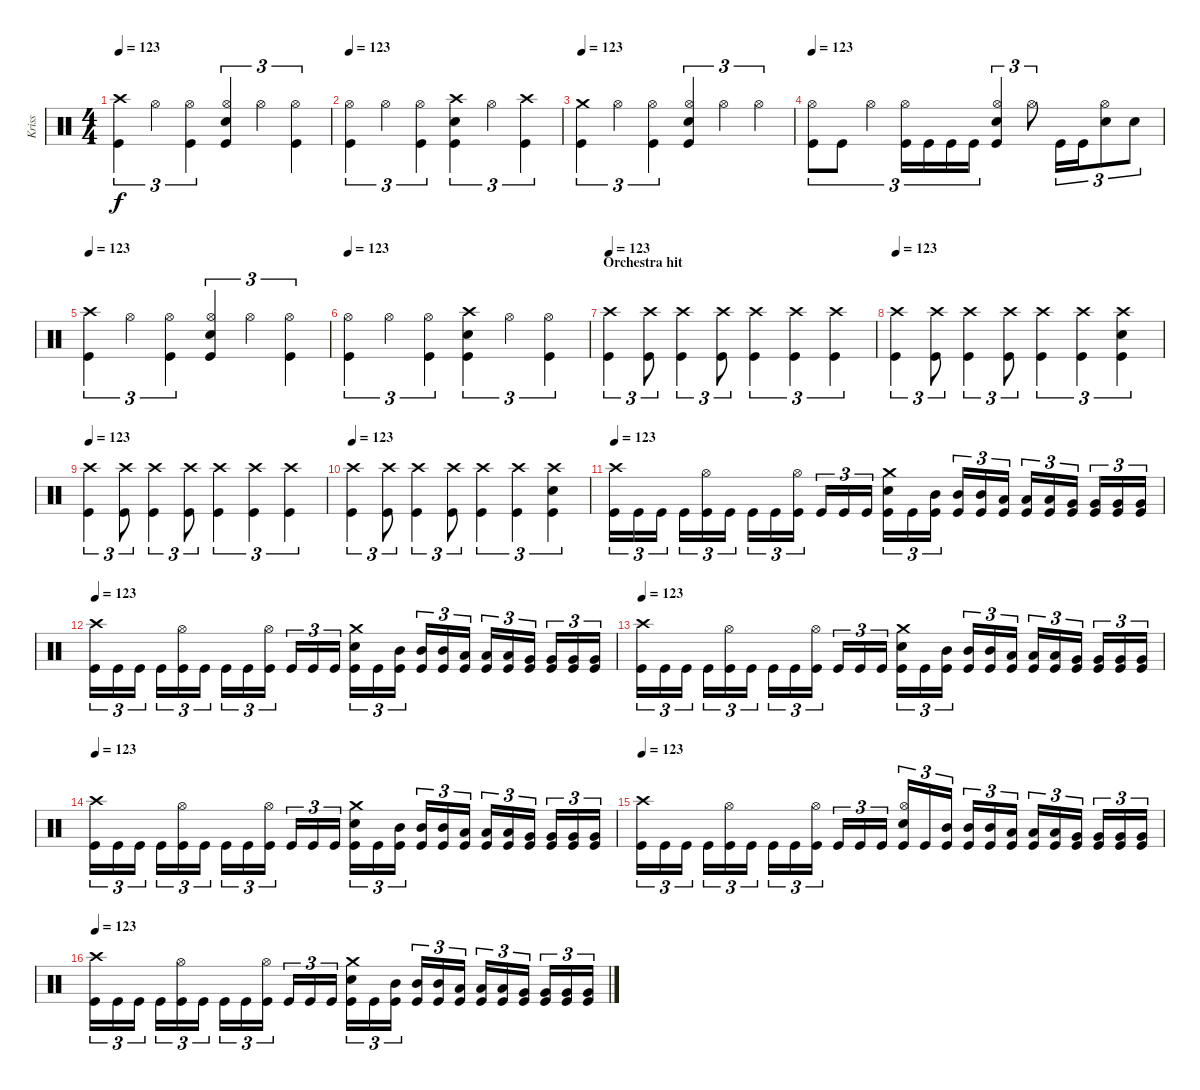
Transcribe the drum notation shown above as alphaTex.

\track ("Kriss" "Kriss") {instrument percussion}
\staff {score}
\articulation defaults
\ts (4 4)
\tempo 123
\clef neutral
\ks c
("Crash high (hit)" "Kick (hit)").4{tu (3 2) dy f} "Hi-Hat (open)".4{tu (3 2)} ("Hi-Hat (open)" "Kick (hit)").4{tu (3 2)} ("Hi-Hat (open)" "Snare (hit) 2" "Kick (hit)").4{tu (3 2)} "Hi-Hat (open)".4{tu (3 2)} ("Hi-Hat (open)" "Kick (hit)").4{tu (3 2)} |
\tempo 123
("Hi-Hat (open)" "Kick (hit)").4{tu (3 2)} "Hi-Hat (open)".4{tu (3 2)} ("Hi-Hat (open)" "Kick (hit)").4{tu (3 2)} ("Crash high (hit)" "Snare (hit) 2" "Kick (hit)").4{tu (3 2)} "Hi-Hat (open)".4{tu (3 2)} ("Crash high (hit)" "Kick (hit)").4{tu (3 2)} |
\tempo 123
("Crash medium (hit)" "Kick (hit)").4{tu (3 2)} "Hi-Hat (open)".4{tu (3 2)} ("Hi-Hat (open)" "Kick (hit)").4{tu (3 2)} ("Hi-Hat (open)" "Snare (hit) 2" "Kick (hit)").4{tu (3 2)} "Hi-Hat (open)".4{tu (3 2)} "Hi-Hat (open)".4{tu (3 2)} |
\tempo 123
("Hi-Hat (open)" "Kick (hit)").8{tu (3 2)} "Kick (hit)".8{tu (3 2)} "Hi-Hat (open)".4{tu (3 2)} ("Hi-Hat (open)" "Kick (hit)").16{tu (3 2)} "Kick (hit)".16{tu (3 2)} "Kick (hit)".16{tu (3 2)} "Kick (hit)".16{tu (3 2)} ("Hi-Hat (open)" "Snare (hit) 2" "Kick (hit)").4{tu (3 2)} "Hi-Hat (open)".8{tu (3 2)} "Kick (hit)".16{tu (3 2)} "Kick (hit)".16{tu (3 2)} ("Hi-Hat (open)" "Snare (hit) 2").8{tu (3 2)} "Snare (hit) 2".8{tu (3 2)} |
\tempo 123
("Crash high (hit)" "Kick (hit)").4{tu (3 2)} "Hi-Hat (open)".4{tu (3 2)} ("Hi-Hat (open)" "Kick (hit)").4{tu (3 2)} ("Hi-Hat (open)" "Snare (hit) 2" "Kick (hit)").4{tu (3 2)} "Hi-Hat (open)".4{tu (3 2)} ("Hi-Hat (open)" "Kick (hit)").4{tu (3 2)} |
\tempo 123
("Hi-Hat (open)" "Kick (hit)").4{tu (3 2)} "Hi-Hat (open)".4{tu (3 2)} ("Hi-Hat (open)" "Kick (hit)").4{tu (3 2)} ("Crash high (hit)" "Snare (hit) 2" "Kick (hit)").4{tu (3 2)} "Hi-Hat (open)".4{tu (3 2)} ("Hi-Hat (open)" "Kick (hit)").4{tu (3 2)} |
\section ("" "Orchestra hit")
\tempo 123
("Crash high (hit)" "Kick (hit)").4{tu (3 2)} ("Crash high (hit)" "Kick (hit)").8{tu (3 2)} ("Crash high (hit)" "Kick (hit)").4{tu (3 2)} ("Crash high (hit)" "Kick (hit)").8{tu (3 2)} ("Crash high (hit)" "Kick (hit)").4{tu (3 2)} ("Crash high (hit)" "Kick (hit)").4{tu (3 2)} ("Crash high (hit)" "Kick (hit)").4{tu (3 2)} |
\tempo 123
("Crash high (hit)" "Kick (hit)").4{tu (3 2)} ("Crash high (hit)" "Kick (hit)").8{tu (3 2)} ("Crash high (hit)" "Kick (hit)").4{tu (3 2)} ("Crash high (hit)" "Kick (hit)").8{tu (3 2)} ("Crash high (hit)" "Kick (hit)").4{tu (3 2)} ("Crash high (hit)" "Kick (hit)").4{tu (3 2)} ("Crash high (hit)" "Snare (hit) 2" "Kick (hit)").4{tu (3 2)} |
\tempo 123
("Crash high (hit)" "Kick (hit)").4{tu (3 2)} ("Crash high (hit)" "Kick (hit)").8{tu (3 2)} ("Crash high (hit)" "Kick (hit)").4{tu (3 2)} ("Crash high (hit)" "Kick (hit)").8{tu (3 2)} ("Crash high (hit)" "Kick (hit)").4{tu (3 2)} ("Crash high (hit)" "Kick (hit)").4{tu (3 2)} ("Crash high (hit)" "Kick (hit)").4{tu (3 2)} |
\tempo 123
("Crash high (hit)" "Kick (hit)").4{tu (3 2)} ("Crash high (hit)" "Kick (hit)").8{tu (3 2)} ("Crash high (hit)" "Kick (hit)").4{tu (3 2)} ("Crash high (hit)" "Kick (hit)").8{tu (3 2)} ("Crash high (hit)" "Kick (hit)").4{tu (3 2)} ("Crash high (hit)" "Kick (hit)").4{tu (3 2)} ("Crash high (hit)" "Snare (hit) 2" "Kick (hit)").4{tu (3 2)} |
\tempo 123
("Crash high (hit)" "Kick (hit)").16{tu (3 2)} "Kick (hit)".16{tu (3 2)} "Kick (hit)".16{tu (3 2)} "Kick (hit)".16{tu (3 2)} ("Hi-Hat (open)" "Kick (hit)").16{tu (3 2)} "Kick (hit)".16{tu (3 2)} "Kick (hit)".16{tu (3 2)} "Kick (hit)".16{tu (3 2)} ("Hi-Hat (open)" "Kick (hit)").16{tu (3 2)} "Kick (hit)".16{tu (3 2)} "Kick (hit)".16{tu (3 2)} "Kick (hit)".16{tu (3 2)} ("Crash medium (hit)" "Snare (hit) 2" "Kick (hit)").16{tu (3 2)} "Kick (hit)".16{tu (3 2)} ("Mid Tom (hit)" "Kick (hit)").16{tu (3 2)} ("Mid Tom (hit)" "Kick (hit)").16{tu (3 2)} ("Mid Tom (hit)" "Kick (hit)").16{tu (3 2)} ("Low Tom (hit)" "Kick (hit)").16{tu (3 2)} ("Low Tom (hit)" "Kick (hit)").16{tu (3 2)} ("Low Tom (hit)" "Kick (hit)").16{tu (3 2)} ("Very Low Tom (hit)" "Kick (hit)").16{tu (3 2)} ("Very Low Tom (hit)" "Kick (hit)").16{tu (3 2)} ("Very Low Tom (hit)" "Kick (hit)").16{tu (3 2)} ("Very Low Tom (hit)" "Kick (hit)").16{tu (3 2)} |
\tempo 123
("Crash high (hit)" "Kick (hit)").16{tu (3 2)} "Kick (hit)".16{tu (3 2)} "Kick (hit)".16{tu (3 2)} "Kick (hit)".16{tu (3 2)} ("Hi-Hat (open)" "Kick (hit)").16{tu (3 2)} "Kick (hit)".16{tu (3 2)} "Kick (hit)".16{tu (3 2)} "Kick (hit)".16{tu (3 2)} ("Hi-Hat (open)" "Kick (hit)").16{tu (3 2)} "Kick (hit)".16{tu (3 2)} "Kick (hit)".16{tu (3 2)} "Kick (hit)".16{tu (3 2)} ("Crash medium (hit)" "Snare (hit) 2" "Kick (hit)").16{tu (3 2)} "Kick (hit)".16{tu (3 2)} ("Mid Tom (hit)" "Kick (hit)").16{tu (3 2)} ("Mid Tom (hit)" "Kick (hit)").16{tu (3 2)} ("Mid Tom (hit)" "Kick (hit)").16{tu (3 2)} ("Low Tom (hit)" "Kick (hit)").16{tu (3 2)} ("Low Tom (hit)" "Kick (hit)").16{tu (3 2)} ("Low Tom (hit)" "Kick (hit)").16{tu (3 2)} ("Very Low Tom (hit)" "Kick (hit)").16{tu (3 2)} ("Very Low Tom (hit)" "Kick (hit)").16{tu (3 2)} ("Very Low Tom (hit)" "Kick (hit)").16{tu (3 2)} ("Very Low Tom (hit)" "Kick (hit)").16{tu (3 2)} |
\tempo 123
("Crash high (hit)" "Kick (hit)").16{tu (3 2)} "Kick (hit)".16{tu (3 2)} "Kick (hit)".16{tu (3 2)} "Kick (hit)".16{tu (3 2)} ("Hi-Hat (open)" "Kick (hit)").16{tu (3 2)} "Kick (hit)".16{tu (3 2)} "Kick (hit)".16{tu (3 2)} "Kick (hit)".16{tu (3 2)} ("Hi-Hat (open)" "Kick (hit)").16{tu (3 2)} "Kick (hit)".16{tu (3 2)} "Kick (hit)".16{tu (3 2)} "Kick (hit)".16{tu (3 2)} ("Crash medium (hit)" "Snare (hit) 2" "Kick (hit)").16{tu (3 2)} "Kick (hit)".16{tu (3 2)} ("Mid Tom (hit)" "Kick (hit)").16{tu (3 2)} ("Mid Tom (hit)" "Kick (hit)").16{tu (3 2)} ("Mid Tom (hit)" "Kick (hit)").16{tu (3 2)} ("Low Tom (hit)" "Kick (hit)").16{tu (3 2)} ("Low Tom (hit)" "Kick (hit)").16{tu (3 2)} ("Low Tom (hit)" "Kick (hit)").16{tu (3 2)} ("Very Low Tom (hit)" "Kick (hit)").16{tu (3 2)} ("Very Low Tom (hit)" "Kick (hit)").16{tu (3 2)} ("Very Low Tom (hit)" "Kick (hit)").16{tu (3 2)} ("Very Low Tom (hit)" "Kick (hit)").16{tu (3 2)} |
\tempo 123
("Crash high (hit)" "Kick (hit)").16{tu (3 2)} "Kick (hit)".16{tu (3 2)} "Kick (hit)".16{tu (3 2)} "Kick (hit)".16{tu (3 2)} ("Hi-Hat (open)" "Kick (hit)").16{tu (3 2)} "Kick (hit)".16{tu (3 2)} "Kick (hit)".16{tu (3 2)} "Kick (hit)".16{tu (3 2)} ("Hi-Hat (open)" "Kick (hit)").16{tu (3 2)} "Kick (hit)".16{tu (3 2)} "Kick (hit)".16{tu (3 2)} "Kick (hit)".16{tu (3 2)} ("Crash medium (hit)" "Snare (hit) 2" "Kick (hit)").16{tu (3 2)} "Kick (hit)".16{tu (3 2)} ("Mid Tom (hit)" "Kick (hit)").16{tu (3 2)} ("Mid Tom (hit)" "Kick (hit)").16{tu (3 2)} ("Mid Tom (hit)" "Kick (hit)").16{tu (3 2)} ("Low Tom (hit)" "Kick (hit)").16{tu (3 2)} ("Low Tom (hit)" "Kick (hit)").16{tu (3 2)} ("Low Tom (hit)" "Kick (hit)").16{tu (3 2)} ("Very Low Tom (hit)" "Kick (hit)").16{tu (3 2)} ("Very Low Tom (hit)" "Kick (hit)").16{tu (3 2)} ("Very Low Tom (hit)" "Kick (hit)").16{tu (3 2)} ("Very Low Tom (hit)" "Kick (hit)").16{tu (3 2)} |
\tempo 123
("Crash high (hit)" "Kick (hit)").16{tu (3 2)} "Kick (hit)".16{tu (3 2)} "Kick (hit)".16{tu (3 2)} "Kick (hit)".16{tu (3 2)} ("Hi-Hat (open)" "Kick (hit)").16{tu (3 2)} "Kick (hit)".16{tu (3 2)} "Kick (hit)".16{tu (3 2)} "Kick (hit)".16{tu (3 2)} ("Hi-Hat (open)" "Kick (hit)").16{tu (3 2)} "Kick (hit)".16{tu (3 2)} "Kick (hit)".16{tu (3 2)} "Kick (hit)".16{tu (3 2)} ("Hi-Hat (open)" "Snare (hit) 2" "Kick (hit)").16{tu (3 2)} "Kick (hit)".16{tu (3 2)} ("Mid Tom (hit)" "Kick (hit)").16{tu (3 2)} ("Mid Tom (hit)" "Kick (hit)").16{tu (3 2)} ("Mid Tom (hit)" "Kick (hit)").16{tu (3 2)} ("Low Tom (hit)" "Kick (hit)").16{tu (3 2)} ("Low Tom (hit)" "Kick (hit)").16{tu (3 2)} ("Low Tom (hit)" "Kick (hit)").16{tu (3 2)} ("Very Low Tom (hit)" "Kick (hit)").16{tu (3 2)} ("Very Low Tom (hit)" "Kick (hit)").16{tu (3 2)} ("Very Low Tom (hit)" "Kick (hit)").16{tu (3 2)} ("Very Low Tom (hit)" "Kick (hit)").16{tu (3 2)} |
\tempo 123
("Crash high (hit)" "Kick (hit)").16{tu (3 2)} "Kick (hit)".16{tu (3 2)} "Kick (hit)".16{tu (3 2)} "Kick (hit)".16{tu (3 2)} ("Hi-Hat (open)" "Kick (hit)").16{tu (3 2)} "Kick (hit)".16{tu (3 2)} "Kick (hit)".16{tu (3 2)} "Kick (hit)".16{tu (3 2)} ("Hi-Hat (open)" "Kick (hit)").16{tu (3 2)} "Kick (hit)".16{tu (3 2)} "Kick (hit)".16{tu (3 2)} "Kick (hit)".16{tu (3 2)} ("Crash medium (hit)" "Snare (hit) 2" "Kick (hit)").16{tu (3 2)} "Kick (hit)".16{tu (3 2)} ("Mid Tom (hit)" "Kick (hit)").16{tu (3 2)} ("Mid Tom (hit)" "Kick (hit)").16{tu (3 2)} ("Mid Tom (hit)" "Kick (hit)").16{tu (3 2)} ("Low Tom (hit)" "Kick (hit)").16{tu (3 2)} ("Low Tom (hit)" "Kick (hit)").16{tu (3 2)} ("Low Tom (hit)" "Kick (hit)").16{tu (3 2)} ("Very Low Tom (hit)" "Kick (hit)").16{tu (3 2)} ("Very Low Tom (hit)" "Kick (hit)").16{tu (3 2)} ("Very Low Tom (hit)" "Kick (hit)").16{tu (3 2)} ("Very Low Tom (hit)" "Kick (hit)").16{tu (3 2)}
